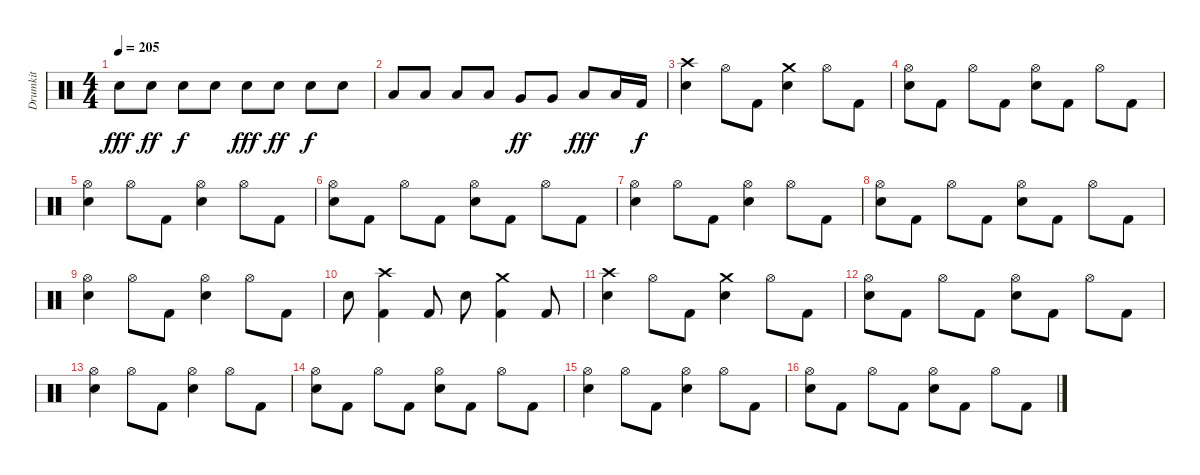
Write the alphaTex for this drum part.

\track ("Drumkit" "Drumkit") {instrument percussion}
\staff {score}
\articulation defaults
\ts (4 4)
\tempo 205
\clef neutral
\ks c "Electric Snare (hit)".8{dy fff} "Electric Snare (hit)".8{dy ff} "Electric Snare (hit)".8{dy f} "Electric Snare (hit)".8 "Electric Snare (hit)".8{dy fff} "Electric Snare (hit)".8{dy ff} "Electric Snare (hit)".8{dy f} "Electric Snare (hit)".8
|
"Low Tom (hit)".8 "Low Tom (hit)".8 "Low Tom (hit)".8 "Low Tom (hit)".8 "Very Low Tom (hit)".8{dy ff} "Very Low Tom (hit)".8 "Low Floor Tom (hit)".8{dy fff} "Low Floor Tom (hit)".16 "Kick (hit) 2".16{dy f} |
("Crash high (hit)" "Electric Snare (hit)").4 "Hi-Hat (open)".8 "Kick (hit) 2".8 ("Crash medium (hit)" "Electric Snare (hit)").4 "Hi-Hat (open)".8 "Kick (hit) 2".8 |
("Hi-Hat (open)" "Electric Snare (hit)").8 "Kick (hit) 2".8 "Hi-Hat (open)".8 "Kick (hit) 2".8 ("Hi-Hat (open)" "Electric Snare (hit)").8 "Kick (hit) 2".8 "Hi-Hat (open)".8 "Kick (hit) 2".8 |
("Hi-Hat (open)" "Electric Snare (hit)").4 "Hi-Hat (open)".8 "Kick (hit) 2".8 ("Hi-Hat (open)" "Electric Snare (hit)").4 "Hi-Hat (open)".8 "Kick (hit) 2".8 |
("Hi-Hat (open)" "Electric Snare (hit)").8 "Kick (hit) 2".8 "Hi-Hat (open)".8 "Kick (hit) 2".8 ("Hi-Hat (open)" "Electric Snare (hit)").8 "Kick (hit) 2".8 "Hi-Hat (open)".8 "Kick (hit) 2".8 |
("Hi-Hat (open)" "Electric Snare (hit)").4 "Hi-Hat (open)".8 "Kick (hit) 2".8 ("Hi-Hat (open)" "Electric Snare (hit)").4 "Hi-Hat (open)".8 "Kick (hit) 2".8 |
("Hi-Hat (open)" "Electric Snare (hit)").8 "Kick (hit) 2".8 "Hi-Hat (open)".8 "Kick (hit) 2".8 ("Hi-Hat (open)" "Electric Snare (hit)").8 "Kick (hit) 2".8 "Hi-Hat (open)".8 "Kick (hit) 2".8 |
("Hi-Hat (open)" "Electric Snare (hit)").4 "Hi-Hat (open)".8 "Kick (hit) 2".8 ("Hi-Hat (open)" "Electric Snare (hit)").4 "Hi-Hat (open)".8 "Kick (hit) 2".8 |
"Electric Snare (hit)".8 ("Crash high (hit)" "Kick (hit) 2").4 "Kick (hit) 2".8 "Electric Snare (hit)".8 ("Crash medium (hit)" "Kick (hit) 2").4 "Kick (hit) 2".8 |
("Crash high (hit)" "Electric Snare (hit)").4 "Hi-Hat (open)".8 "Kick (hit) 2".8 ("Crash medium (hit)" "Electric Snare (hit)").4 "Hi-Hat (open)".8 "Kick (hit) 2".8 |
("Hi-Hat (open)" "Electric Snare (hit)").8 "Kick (hit) 2".8 "Hi-Hat (open)".8 "Kick (hit) 2".8 ("Hi-Hat (open)" "Electric Snare (hit)").8 "Kick (hit) 2".8 "Hi-Hat (open)".8 "Kick (hit) 2".8 |
("Hi-Hat (open)" "Electric Snare (hit)").4 "Hi-Hat (open)".8 "Kick (hit) 2".8 ("Hi-Hat (open)" "Electric Snare (hit)").4 "Hi-Hat (open)".8 "Kick (hit) 2".8 |
("Hi-Hat (open)" "Electric Snare (hit)").8 "Kick (hit) 2".8 "Hi-Hat (open)".8 "Kick (hit) 2".8 ("Hi-Hat (open)" "Electric Snare (hit)").8 "Kick (hit) 2".8 "Hi-Hat (open)".8 "Kick (hit) 2".8 |
("Hi-Hat (open)" "Electric Snare (hit)").4 "Hi-Hat (open)".8 "Kick (hit) 2".8 ("Hi-Hat (open)" "Electric Snare (hit)").4 "Hi-Hat (open)".8 "Kick (hit) 2".8 |
("Hi-Hat (open)" "Electric Snare (hit)").8 "Kick (hit) 2".8 "Hi-Hat (open)".8 "Kick (hit) 2".8 ("Hi-Hat (open)" "Electric Snare (hit)").8 "Kick (hit) 2".8 "Hi-Hat (open)".8 "Kick (hit) 2".8
